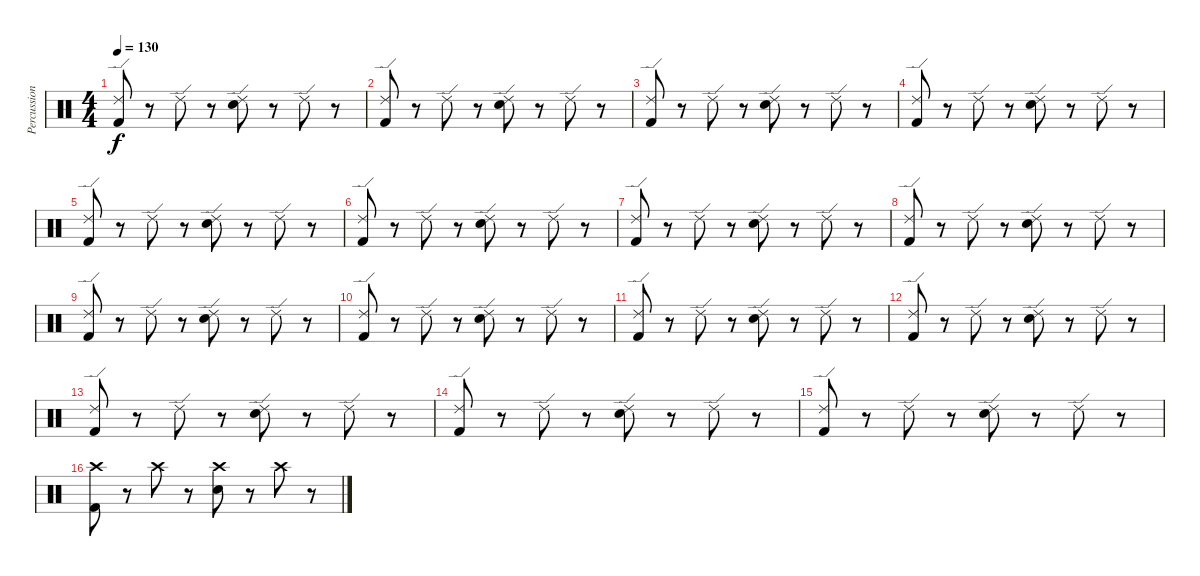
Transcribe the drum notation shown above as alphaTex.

\track ("Percussion" "Percussion") {instrument percussion}
\staff {score}
\articulation defaults
\ts (4 4)
\tempo 130
\clef neutral
\ks c
("Ride (edge) 2" "Kick (hit) 2").8{dy f} r.8 "Ride (edge) 2".8 r.8 ("Ride (edge) 2" "Snare (hit) 2").8 r.8 "Ride (edge) 2".8 r.8 |
("Ride (edge) 2" "Kick (hit) 2").8 r.8 "Ride (edge) 2".8 r.8 ("Ride (edge) 2" "Snare (hit) 2").8 r.8 "Ride (edge) 2".8 r.8 |
("Ride (edge) 2" "Kick (hit) 2").8 r.8 "Ride (edge) 2".8 r.8 ("Ride (edge) 2" "Snare (hit) 2").8 r.8 "Ride (edge) 2".8 r.8 |
("Ride (edge) 2" "Kick (hit) 2").8 r.8 "Ride (edge) 2".8 r.8 ("Ride (edge) 2" "Snare (hit) 2").8 r.8 "Ride (edge) 2".8 r.8 |
("Ride (edge) 2" "Kick (hit) 2").8 r.8 "Ride (edge) 2".8 r.8 ("Ride (edge) 2" "Snare (hit) 2").8 r.8 "Ride (edge) 2".8 r.8 |
("Ride (edge) 2" "Kick (hit) 2").8 r.8 "Ride (edge) 2".8 r.8 ("Ride (edge) 2" "Snare (hit) 2").8 r.8 "Ride (edge) 2".8 r.8 |
("Ride (edge) 2" "Kick (hit) 2").8 r.8 "Ride (edge) 2".8 r.8 ("Ride (edge) 2" "Snare (hit) 2").8 r.8 "Ride (edge) 2".8 r.8 |
("Ride (edge) 2" "Kick (hit) 2").8 r.8 "Ride (edge) 2".8 r.8 ("Ride (edge) 2" "Snare (hit) 2").8 r.8 "Ride (edge) 2".8 r.8 |
("Ride (edge) 2" "Kick (hit) 2").8 r.8 "Ride (edge) 2".8 r.8 ("Ride (edge) 2" "Snare (hit) 2").8 r.8 "Ride (edge) 2".8 r.8 |
("Ride (edge) 2" "Kick (hit) 2").8 r.8 "Ride (edge) 2".8 r.8 ("Ride (edge) 2" "Snare (hit) 2").8 r.8 "Ride (edge) 2".8 r.8 |
("Ride (edge) 2" "Kick (hit) 2").8 r.8 "Ride (edge) 2".8 r.8 ("Ride (edge) 2" "Snare (hit) 2").8 r.8 "Ride (edge) 2".8 r.8 |
("Ride (edge) 2" "Kick (hit) 2").8 r.8 "Ride (edge) 2".8 r.8 ("Ride (edge) 2" "Snare (hit) 2").8 r.8 "Ride (edge) 2".8 r.8 |
("Ride (edge) 2" "Kick (hit) 2").8 r.8 "Ride (edge) 2".8 r.8 ("Ride (edge) 2" "Snare (hit) 2").8 r.8 "Ride (edge) 2".8 r.8 |
("Ride (edge) 2" "Kick (hit) 2").8 r.8 "Ride (edge) 2".8 r.8 ("Ride (edge) 2" "Snare (hit) 2").8 r.8 "Ride (edge) 2".8 r.8 |
("Ride (edge) 2" "Kick (hit) 2").8 r.8 "Ride (edge) 2".8 r.8 ("Ride (edge) 2" "Snare (hit) 2").8 r.8 "Ride (edge) 2".8 r.8 |
("Crash high (hit)" "Kick (hit) 2").8 r.8 "Crash high (hit)".8 r.8 ("Crash high (hit)" "Snare (hit) 2").8 r.8 "Crash high (hit)".8 r.8
